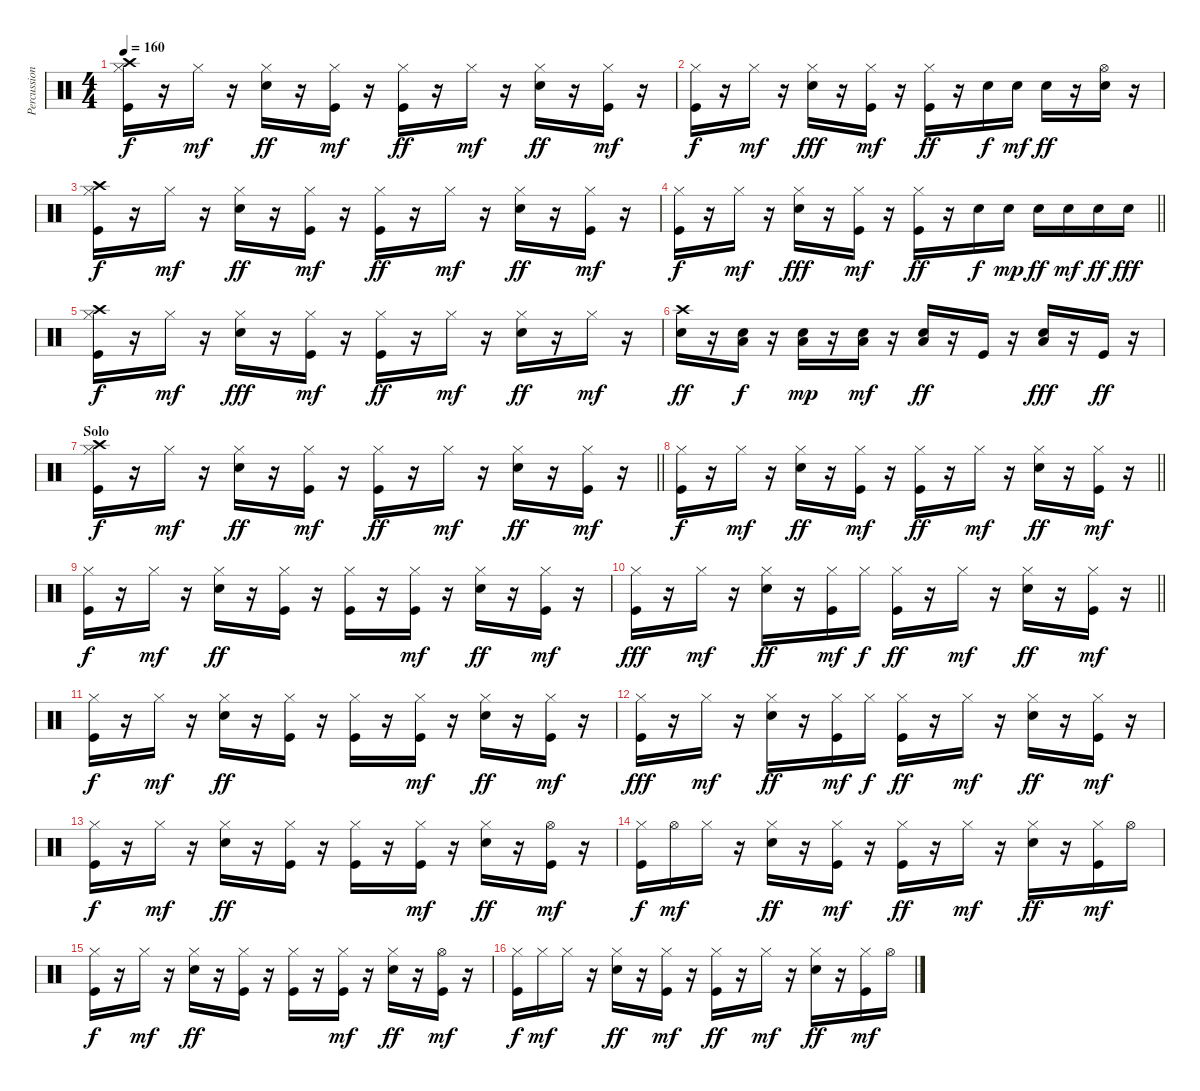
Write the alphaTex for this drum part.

\track ("Percussions" "Percussion") {instrument percussion}
\staff {score}
\articulation defaults
\ts (4 4)
\tempo 160
\clef neutral
\ks c
("Kick (hit)" "Hi-Hat (closed)" "Crash high (hit)").16{dy f} r.16 "Hi-Hat (closed)".16{dy mf} r.16 ("Snare (hit) 2" "Hi-Hat (closed)").16{dy ff} r.16 ("Kick (hit)" "Hi-Hat (closed)").16{dy mf} r.16 ("Kick (hit)" "Hi-Hat (closed)").16{dy ff} r.16 "Hi-Hat (closed)".16{dy mf} r.16 ("Snare (hit) 2" "Hi-Hat (closed)").16{dy ff} r.16 ("Kick (hit)" "Hi-Hat (closed)").16{dy mf} r.16 |
("Kick (hit)" "Hi-Hat (closed)").16{dy f} r.16 "Hi-Hat (closed)".16{dy mf} r.16 ("Snare (hit) 2" "Hi-Hat (closed)").16{dy fff} r.16 ("Kick (hit)" "Hi-Hat (closed)").16{dy mf} r.16 ("Kick (hit)" "Hi-Hat (closed)").16{dy ff} r.16 "Snare (hit) 2".16{dy f} "Snare (hit) 2".16{dy mf} "Snare (hit) 2".16{dy ff} r.16 ("Snare (hit) 2" "Hi-Hat (open)").16 r.16 |
("Kick (hit)" "Hi-Hat (closed)" "Crash high (hit)").16{dy f} r.16 "Hi-Hat (closed)".16{dy mf} r.16 ("Snare (hit) 2" "Hi-Hat (closed)").16{dy ff} r.16 ("Kick (hit)" "Hi-Hat (closed)").16{dy mf} r.16 ("Kick (hit)" "Hi-Hat (closed)").16{dy ff} r.16 "Hi-Hat (closed)".16{dy mf} r.16 ("Snare (hit) 2" "Hi-Hat (closed)").16{dy ff} r.16 ("Kick (hit)" "Hi-Hat (closed)").16{dy mf} r.16 |
\barLineRight lightlight
("Kick (hit)" "Hi-Hat (closed)").16{dy f} r.16 "Hi-Hat (closed)".16{dy mf} r.16 ("Snare (hit) 2" "Hi-Hat (closed)").16{dy fff} r.16 ("Kick (hit)" "Hi-Hat (closed)").16{dy mf} r.16 ("Kick (hit)" "Hi-Hat (closed)").16{dy ff} r.16 "Snare (hit) 2".16{dy f} "Snare (hit) 2".16{dy mp} "Snare (hit) 2".16{dy ff} "Snare (hit) 2".16{dy mf} "Snare (hit) 2".16{dy ff} "Snare (hit) 2".16{dy fff} |
("Kick (hit)" "Hi-Hat (closed)" "Crash high (hit)").16{dy f} r.16 "Hi-Hat (closed)".16{dy mf} r.16 ("Snare (hit) 2" "Hi-Hat (closed)").16{dy fff} r.16 ("Kick (hit)" "Hi-Hat (closed)").16{dy mf} r.16 ("Kick (hit)" "Hi-Hat (closed)").16{dy ff} r.16 "Hi-Hat (closed)".16{dy mf} r.16 ("Snare (hit) 2" "Hi-Hat (closed)").16{dy ff} r.16 "Hi-Hat (closed)".16{dy mf} r.16 |
("Snare (hit) 2" "Crash high (hit)").16{dy ff} r.16 ("Snare (hit) 2" "Low Floor Tom (hit)").16{dy f} r.16 ("Snare (hit) 2" "Low Floor Tom (hit)").16{dy mp} r.16 ("Snare (hit) 2" "Low Floor Tom (hit)").16{dy mf} r.16 ("Snare (hit) 2" "Low Floor Tom (hit)").16{dy ff} r.16 "Kick (hit)".16 r.16 ("Snare (hit) 2" "Low Floor Tom (hit)").16{dy fff} r.16 "Kick (hit)".16{dy ff} r.16 |
\section ("" "Solo")
\barLineRight lightlight
("Kick (hit)" "Hi-Hat (closed)" "Crash high (hit)").16{dy f} r.16 "Hi-Hat (closed)".16{dy mf} r.16 ("Snare (hit) 2" "Hi-Hat (closed)").16{dy ff} r.16 ("Kick (hit)" "Hi-Hat (closed)").16{dy mf} r.16 ("Kick (hit)" "Hi-Hat (closed)").16{dy ff} r.16 "Hi-Hat (closed)".16{dy mf} r.16 ("Snare (hit) 2" "Hi-Hat (closed)").16{dy ff} r.16 ("Kick (hit)" "Hi-Hat (closed)").16{dy mf} r.16 |
\barLineRight lightlight
("Kick (hit)" "Hi-Hat (closed)").16{dy f} r.16 "Hi-Hat (closed)".16{dy mf} r.16 ("Snare (hit) 2" "Hi-Hat (closed)").16{dy ff} r.16 ("Kick (hit)" "Hi-Hat (closed)").16{dy mf} r.16 ("Kick (hit)" "Hi-Hat (closed)").16{dy ff} r.16 "Hi-Hat (closed)".16{dy mf} r.16 ("Snare (hit) 2" "Hi-Hat (closed)").16{dy ff} r.16 ("Kick (hit)" "Hi-Hat (closed)").16{dy mf} r.16 |
("Kick (hit)" "Hi-Hat (closed)").16{dy f} r.16 "Hi-Hat (closed)".16{dy mf} r.16 ("Snare (hit) 2" "Hi-Hat (closed)").16{dy ff} r.16 ("Kick (hit)" "Hi-Hat (closed)").16 r.16 ("Kick (hit)" "Hi-Hat (closed)").16 r.16 ("Kick (hit)" "Hi-Hat (closed)").16{dy mf} r.16 ("Snare (hit) 2" "Hi-Hat (closed)").16{dy ff} r.16 ("Kick (hit)" "Hi-Hat (closed)").16{dy mf} r.16 |
\barLineRight lightlight
("Kick (hit)" "Hi-Hat (closed)").16{dy fff} r.16 "Hi-Hat (closed)".16{dy mf} r.16 ("Snare (hit) 2" "Hi-Hat (closed)").16{dy ff} r.16 ("Kick (hit)" "Hi-Hat (closed)").16{dy mf} "Hi-Hat (closed)".16{dy f} ("Kick (hit)" "Hi-Hat (closed)").16{dy ff} r.16 "Hi-Hat (closed)".16{dy mf} r.16 ("Snare (hit) 2" "Hi-Hat (closed)").16{dy ff} r.16 ("Kick (hit)" "Hi-Hat (closed)").16{dy mf} r.16 |
("Kick (hit)" "Hi-Hat (closed)").16{dy f} r.16 "Hi-Hat (closed)".16{dy mf} r.16 ("Snare (hit) 2" "Hi-Hat (closed)").16{dy ff} r.16 ("Kick (hit)" "Hi-Hat (closed)").16 r.16 ("Kick (hit)" "Hi-Hat (closed)").16 r.16 ("Kick (hit)" "Hi-Hat (closed)").16{dy mf} r.16 ("Snare (hit) 2" "Hi-Hat (closed)").16{dy ff} r.16 ("Kick (hit)" "Hi-Hat (closed)").16{dy mf} r.16 |
("Kick (hit)" "Hi-Hat (closed)").16{dy fff} r.16 "Hi-Hat (closed)".16{dy mf} r.16 ("Snare (hit) 2" "Hi-Hat (closed)").16{dy ff} r.16 ("Kick (hit)" "Hi-Hat (closed)").16{dy mf} "Hi-Hat (closed)".16{dy f} ("Kick (hit)" "Hi-Hat (closed)").16{dy ff} r.16 "Hi-Hat (closed)".16{dy mf} r.16 ("Snare (hit) 2" "Hi-Hat (closed)").16{dy ff} r.16 ("Kick (hit)" "Hi-Hat (closed)").16{dy mf} r.16 |
("Kick (hit)" "Hi-Hat (closed)").16{dy f} r.16 "Hi-Hat (closed)".16{dy mf} r.16 ("Snare (hit) 2" "Hi-Hat (closed)").16{dy ff} r.16 ("Kick (hit)" "Hi-Hat (closed)").16 r.16 ("Kick (hit)" "Hi-Hat (closed)").16 r.16 ("Kick (hit)" "Hi-Hat (closed)").16{dy mf} r.16 ("Snare (hit) 2" "Hi-Hat (closed)").16{dy ff} r.16 ("Kick (hit)" "Hi-Hat (open)").16{dy mf} r.16 |
("Kick (hit)" "Hi-Hat (closed)").16{dy f} "Hi-Hat (open)".16{dy mf} "Hi-Hat (closed)".16 r.16 ("Snare (hit) 2" "Hi-Hat (closed)").16{dy ff} r.16 ("Kick (hit)" "Hi-Hat (closed)").16{dy mf} r.16 ("Kick (hit)" "Hi-Hat (closed)").16{dy ff} r.16 "Hi-Hat (closed)".16{dy mf} r.16 ("Snare (hit) 2" "Hi-Hat (closed)").16{dy ff} r.16 ("Kick (hit)" "Hi-Hat (closed)").16{dy mf} "Hi-Hat (open)".16 |
("Kick (hit)" "Hi-Hat (closed)").16{dy f} r.16 "Hi-Hat (closed)".16{dy mf} r.16 ("Snare (hit) 2" "Hi-Hat (closed)").16{dy ff} r.16 ("Kick (hit)" "Hi-Hat (closed)").16 r.16 ("Kick (hit)" "Hi-Hat (closed)").16 r.16 ("Kick (hit)" "Hi-Hat (closed)").16{dy mf} r.16 ("Snare (hit) 2" "Hi-Hat (closed)").16{dy ff} r.16 ("Kick (hit)" "Hi-Hat (open)").16{dy mf} r.16 |
("Kick (hit)" "Hi-Hat (closed)").16{dy f} "Hi-Hat (closed)".16{dy mf} "Hi-Hat (closed)".16 r.16 ("Snare (hit) 2" "Hi-Hat (closed)").16{dy ff} r.16 ("Kick (hit)" "Hi-Hat (closed)").16{dy mf} r.16 ("Kick (hit)" "Hi-Hat (closed)").16{dy ff} r.16 "Hi-Hat (closed)".16{dy mf} r.16 ("Snare (hit) 2" "Hi-Hat (closed)").16{dy ff} r.16 ("Kick (hit)" "Hi-Hat (closed)").16{dy mf} "Hi-Hat (open)".16
